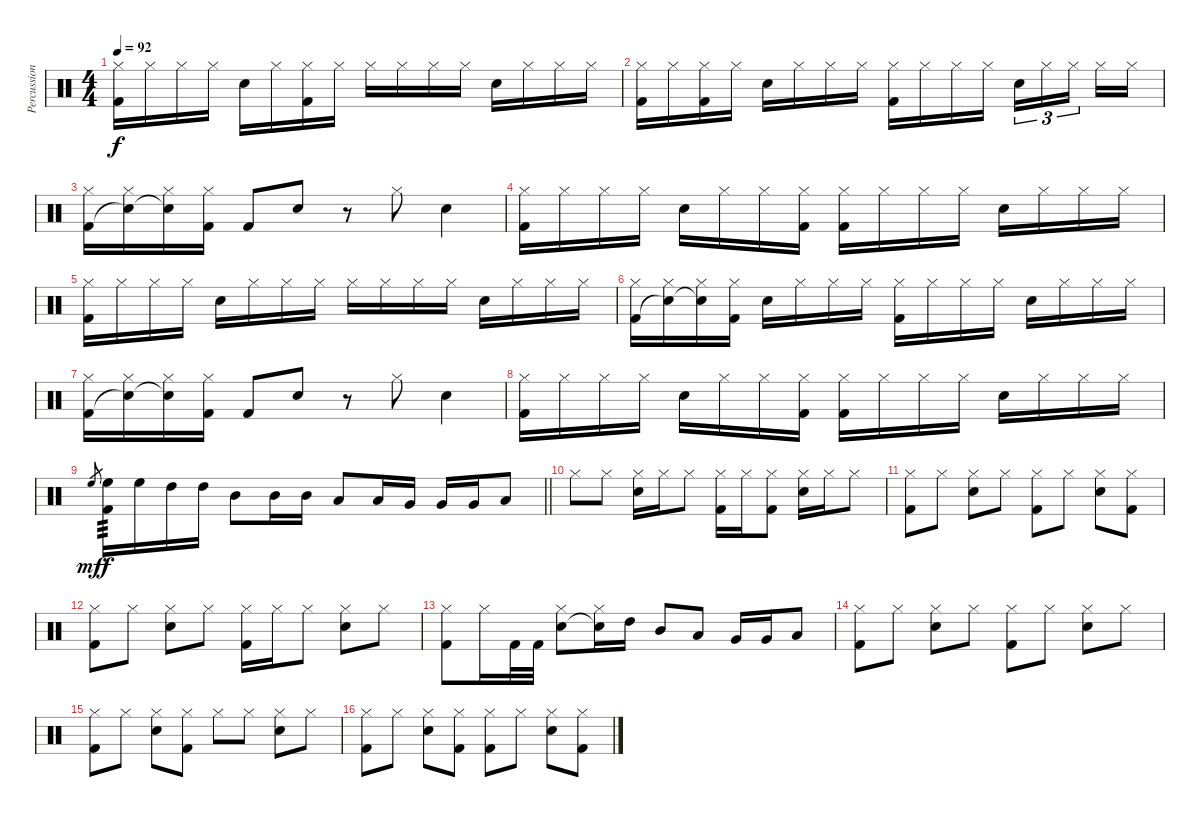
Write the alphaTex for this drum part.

\track ("Percussion" "Percussion") {instrument percussion}
\staff {score}
\articulation defaults
\ts (4 4)
\tempo 92
\clef neutral
\ks c
("Hi-Hat (closed)" "Kick (hit) 2").16{dy f} "Hi-Hat (closed)".16 "Hi-Hat (closed)".16 "Hi-Hat (closed)".16 "Snare (hit) 2".16 "Hi-Hat (closed)".16 ("Hi-Hat (closed)" "Kick (hit) 2").16 "Hi-Hat (closed)".16 "Hi-Hat (closed)".16 "Hi-Hat (closed)".16 "Hi-Hat (closed)".16 "Hi-Hat (closed)".16 "Snare (hit) 2".16 "Hi-Hat (closed)".16 "Hi-Hat (closed)".16 "Hi-Hat (closed)".16 |
("Hi-Hat (closed)" "Kick (hit) 2").16 "Hi-Hat (closed)".16 ("Hi-Hat (closed)" "Kick (hit) 2").16 "Hi-Hat (closed)".16 "Snare (hit) 2".16 "Hi-Hat (closed)".16 "Hi-Hat (closed)".16 "Hi-Hat (closed)".16 ("Hi-Hat (closed)" "Kick (hit) 2").16 "Hi-Hat (closed)".16 "Hi-Hat (closed)".16 "Hi-Hat (closed)".16 "Snare (hit) 2".16{tu (3 2)} "Hi-Hat (closed)".16{tu (3 2)} "Hi-Hat (closed)".16{tu (3 2) beam splitsecondary} "Hi-Hat (closed)".16 "Hi-Hat (closed)".16 |
("Hi-Hat (closed)" "Kick (hit) 2").16 ("Hi-Hat (closed)" "Snare (hit)"{t}).16 ("Hi-Hat (closed)" "Snare (hit)"{t}).16 ("Hi-Hat (closed)" "Kick (hit) 2").16 "Kick (hit) 2".8 "Snare (hit) 2".8 r.8 "Hi-Hat (closed)".8 "Snare (hit) 2".4 |
("Hi-Hat (closed)" "Kick (hit) 2").16 "Hi-Hat (closed)".16 "Hi-Hat (closed)".16 "Hi-Hat (closed)".16 "Snare (hit) 2".16 "Hi-Hat (closed)".16 "Hi-Hat (closed)".16 ("Hi-Hat (closed)" "Kick (hit) 2").16 ("Hi-Hat (closed)" "Kick (hit) 2").16 "Hi-Hat (closed)".16 "Hi-Hat (closed)".16 "Hi-Hat (closed)".16 "Snare (hit) 2".16 "Hi-Hat (closed)".16 "Hi-Hat (closed)".16 "Hi-Hat (closed)".16 |
("Hi-Hat (closed)" "Kick (hit) 2").16 "Hi-Hat (closed)".16 "Hi-Hat (closed)".16 "Hi-Hat (closed)".16 "Snare (hit) 2".16 "Hi-Hat (closed)".16 "Hi-Hat (closed)".16 "Hi-Hat (closed)".16 "Hi-Hat (closed)".16 "Hi-Hat (closed)".16 "Hi-Hat (closed)".16 "Hi-Hat (closed)".16 "Snare (hit) 2".16 "Hi-Hat (closed)".16 "Hi-Hat (closed)".16 "Hi-Hat (closed)".16 |
("Hi-Hat (closed)" "Kick (hit) 2").16 ("Hi-Hat (closed)" "Snare (hit)"{t}).16 ("Hi-Hat (closed)" "Snare (hit)"{t}).16 ("Hi-Hat (closed)" "Kick (hit) 2").16 "Snare (hit) 2".16 "Hi-Hat (closed)".16 "Hi-Hat (closed)".16 "Hi-Hat (closed)".16 ("Hi-Hat (closed)" "Kick (hit) 2").16 "Hi-Hat (closed)".16 "Hi-Hat (closed)".16 "Hi-Hat (closed)".16 "Snare (hit) 2".16 "Hi-Hat (closed)".16 "Hi-Hat (closed)".16 "Hi-Hat (closed)".16 |
("Hi-Hat (closed)" "Kick (hit) 2").16 ("Hi-Hat (closed)" "Snare (hit)"{t}).16 ("Hi-Hat (closed)" "Snare (hit)"{t}).16 ("Hi-Hat (closed)" "Kick (hit) 2").16 "Kick (hit) 2".8 "Snare (hit) 2".8 r.8 "Hi-Hat (closed)".8 "Snare (hit) 2".4 |
("Hi-Hat (closed)" "Kick (hit) 2").16 "Hi-Hat (closed)".16 "Hi-Hat (closed)".16 "Hi-Hat (closed)".16 "Snare (hit) 2".16 "Hi-Hat (closed)".16 "Hi-Hat (closed)".16 ("Hi-Hat (closed)" "Kick (hit) 2").16 ("Hi-Hat (closed)" "Kick (hit) 2").16 "Hi-Hat (closed)".16 "Hi-Hat (closed)".16 "Hi-Hat (closed)".16 "Snare (hit) 2".16 "Hi-Hat (closed)".16 "Hi-Hat (closed)".16 "Hi-Hat (closed)".16 |
\barLineRight lightlight "High Floor Tom (hit)".8{gr dy mf}
("High Floor Tom (hit)" "Kick (hit) 2").16{tp 3 dy f} "High Floor Tom (hit)".16 "High Tom (hit)".16 "High Tom (hit)".16 "Mid Tom (hit)".8 "Mid Tom (hit)".16 "Mid Tom (hit)".16 "Low Tom (hit)".8 "Low Tom (hit)".16 "Very Low Tom (hit)".16 "Very Low Tom (hit)".16 "Very Low Tom (hit)".16 "Low Floor Tom (hit)".8 |
"Hi-Hat (closed)".8 "Hi-Hat (closed)".8 ("Hi-Hat (closed)" "Snare (hit) 2").16 "Hi-Hat (closed)".16 "Hi-Hat (closed)".8 ("Hi-Hat (closed)" "Kick (hit) 2").16 "Hi-Hat (closed)".16 ("Hi-Hat (closed)" "Kick (hit) 2").8 ("Hi-Hat (closed)" "Snare (hit) 2").16 "Hi-Hat (closed)".16 "Hi-Hat (closed)".8 |
("Hi-Hat (closed)" "Kick (hit) 2").8 "Hi-Hat (closed)".8 ("Hi-Hat (closed)" "Snare (hit) 2").8 "Hi-Hat (closed)".8 ("Hi-Hat (closed)" "Kick (hit) 2").8 "Hi-Hat (closed)".8 ("Hi-Hat (closed)" "Snare (hit) 2").8 ("Hi-Hat (closed)" "Kick (hit) 2").8 |
("Hi-Hat (closed)" "Kick (hit) 2").8 "Hi-Hat (closed)".8 ("Hi-Hat (closed)" "Snare (hit) 2").8 "Hi-Hat (closed)".8 ("Hi-Hat (closed)" "Kick (hit) 2").16 "Hi-Hat (closed)".16 "Hi-Hat (closed)".8 ("Hi-Hat (closed)" "Snare (hit) 2").8 "Hi-Hat (closed)".8 |
("Hi-Hat (closed)" "Kick (hit) 2").8 "Hi-Hat (closed)".16 "Kick (hit) 2".32 "Kick (hit) 2".32 ("Hi-Hat (closed)" "Snare (hit) 2").8 ("Hi-Hat (closed)" "Snare (hit)"{t}).16 "High Tom (hit)".16 "Mid Tom (hit)".8 "Low Tom (hit)".8 "Very Low Tom (hit)".16 "Very Low Tom (hit)".16 "Low Floor Tom (hit)".8 |
("Hi-Hat (closed)" "Kick (hit) 2").8 "Hi-Hat (closed)".8 ("Hi-Hat (closed)" "Snare (hit) 2").8 "Hi-Hat (closed)".8 ("Hi-Hat (closed)" "Kick (hit) 2").8 "Hi-Hat (closed)".8 ("Hi-Hat (closed)" "Snare (hit) 2").8 "Hi-Hat (closed)".8 |
("Hi-Hat (closed)" "Kick (hit) 2").8 "Hi-Hat (closed)".8 ("Hi-Hat (closed)" "Snare (hit) 2").8 ("Hi-Hat (closed)" "Kick (hit) 2").8 "Hi-Hat (closed)".8 "Hi-Hat (closed)".8 ("Hi-Hat (closed)" "Snare (hit) 2").8 "Hi-Hat (closed)".8 |
("Hi-Hat (closed)" "Kick (hit) 2").8 "Hi-Hat (closed)".8 ("Hi-Hat (closed)" "Snare (hit) 2").8 ("Hi-Hat (closed)" "Kick (hit) 2").8 ("Hi-Hat (closed)" "Kick (hit) 2").8 "Hi-Hat (closed)".8 ("Hi-Hat (closed)" "Snare (hit) 2").8 ("Hi-Hat (closed)" "Kick (hit) 2").8
